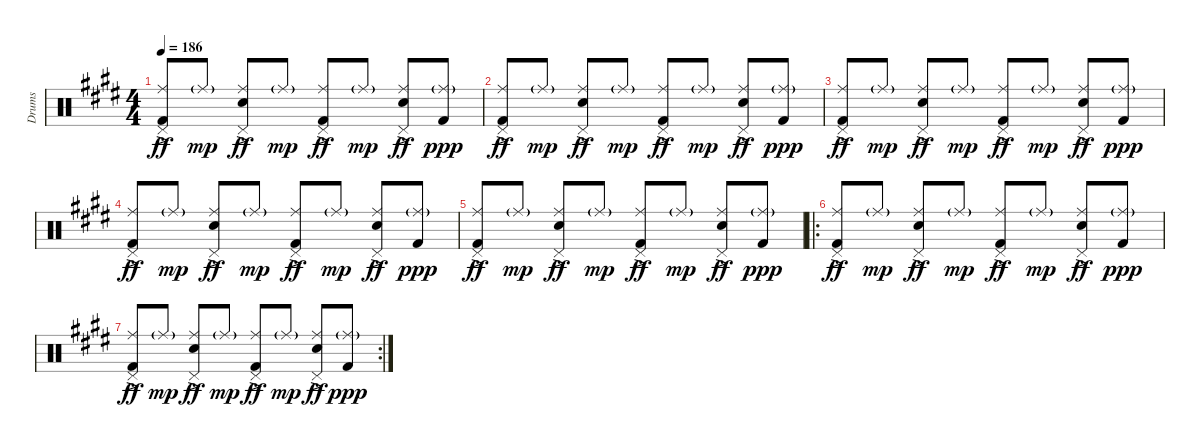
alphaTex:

\track ("Drums" "Drums") {instrument percussion}
\staff {score}
\articulation defaults
\ts (4 4)
\tempo 186
\clef neutral
\ks e
("Pedal Hi-Hat (hit)" "Ride (middle)" "Kick (hit) 2"{ac}).8{dy ff} "Ride (middle)"{g}.8{dy mp} ("Pedal Hi-Hat (hit)" "Ride (middle)" "Snare (hit) 2"{ac}).8{dy ff} "Ride (middle)"{g}.8{dy mp} ("Pedal Hi-Hat (hit)" "Ride (middle)" "Kick (hit) 2"{ac}).8{dy ff} "Ride (middle)"{g}.8{dy mp} ("Pedal Hi-Hat (hit)" "Ride (middle)" "Snare (hit) 2"{ac}).8{dy ff} ("Ride (middle)"{g} "Kick (hit) 2").8{dy ppp} |
("Pedal Hi-Hat (hit)" "Ride (middle)" "Kick (hit) 2"{ac}).8{dy ff} "Ride (middle)"{g}.8{dy mp} ("Pedal Hi-Hat (hit)" "Ride (middle)" "Snare (hit) 2"{ac}).8{dy ff} "Ride (middle)"{g}.8{dy mp} ("Pedal Hi-Hat (hit)" "Ride (middle)" "Kick (hit) 2"{ac}).8{dy ff} "Ride (middle)"{g}.8{dy mp} ("Pedal Hi-Hat (hit)" "Ride (middle)" "Snare (hit) 2"{ac}).8{dy ff} ("Ride (middle)"{g} "Kick (hit) 2").8{dy ppp} |
("Pedal Hi-Hat (hit)" "Ride (middle)" "Kick (hit) 2"{ac}).8{dy ff} "Ride (middle)"{g}.8{dy mp} ("Pedal Hi-Hat (hit)" "Ride (middle)" "Snare (hit) 2"{ac}).8{dy ff} "Ride (middle)"{g}.8{dy mp} ("Pedal Hi-Hat (hit)" "Ride (middle)" "Kick (hit) 2"{ac}).8{dy ff} "Ride (middle)"{g}.8{dy mp} ("Pedal Hi-Hat (hit)" "Ride (middle)" "Snare (hit) 2"{ac}).8{dy ff} ("Ride (middle)"{g} "Kick (hit) 2").8{dy ppp} |
("Pedal Hi-Hat (hit)" "Ride (middle)" "Kick (hit) 2"{ac}).8{dy ff} "Ride (middle)"{g}.8{dy mp} ("Pedal Hi-Hat (hit)" "Ride (middle)" "Snare (hit) 2"{ac}).8{dy ff} "Ride (middle)"{g}.8{dy mp} ("Pedal Hi-Hat (hit)" "Ride (middle)" "Kick (hit) 2"{ac}).8{dy ff} "Ride (middle)"{g}.8{dy mp} ("Pedal Hi-Hat (hit)" "Ride (middle)" "Snare (hit) 2"{ac}).8{dy ff} ("Ride (middle)"{g} "Kick (hit) 2").8{dy ppp} |
("Pedal Hi-Hat (hit)" "Ride (middle)" "Kick (hit) 2"{ac}).8{dy ff} "Ride (middle)"{g}.8{dy mp} ("Pedal Hi-Hat (hit)" "Ride (middle)" "Snare (hit) 2"{ac}).8{dy ff} "Ride (middle)"{g}.8{dy mp} ("Pedal Hi-Hat (hit)" "Ride (middle)" "Kick (hit) 2"{ac}).8{dy ff} "Ride (middle)"{g}.8{dy mp} ("Pedal Hi-Hat (hit)" "Ride (middle)" "Snare (hit) 2"{ac}).8{dy ff} ("Ride (middle)"{g} "Kick (hit) 2").8{dy ppp} |
\ro
("Pedal Hi-Hat (hit)" "Ride (middle)" "Kick (hit) 2"{ac}).8{dy ff} "Ride (middle)"{g}.8{dy mp} ("Pedal Hi-Hat (hit)" "Ride (middle)" "Snare (hit) 2"{ac}).8{dy ff} "Ride (middle)"{g}.8{dy mp} ("Pedal Hi-Hat (hit)" "Ride (middle)" "Kick (hit) 2"{ac}).8{dy ff} "Ride (middle)"{g}.8{dy mp} ("Pedal Hi-Hat (hit)" "Ride (middle)" "Snare (hit) 2"{ac}).8{dy ff} ("Ride (middle)"{g} "Kick (hit) 2").8{dy ppp} |
\rc 2
("Pedal Hi-Hat (hit)" "Ride (middle)" "Kick (hit) 2"{ac}).8{dy ff} "Ride (middle)"{g}.8{dy mp} ("Pedal Hi-Hat (hit)" "Ride (middle)" "Snare (hit) 2"{ac}).8{dy ff} "Ride (middle)"{g}.8{dy mp} ("Pedal Hi-Hat (hit)" "Ride (middle)" "Kick (hit) 2"{ac}).8{dy ff} "Ride (middle)"{g}.8{dy mp} ("Pedal Hi-Hat (hit)" "Ride (middle)" "Snare (hit) 2"{ac}).8{dy ff} ("Ride (middle)"{g} "Kick (hit) 2").8{dy ppp}
